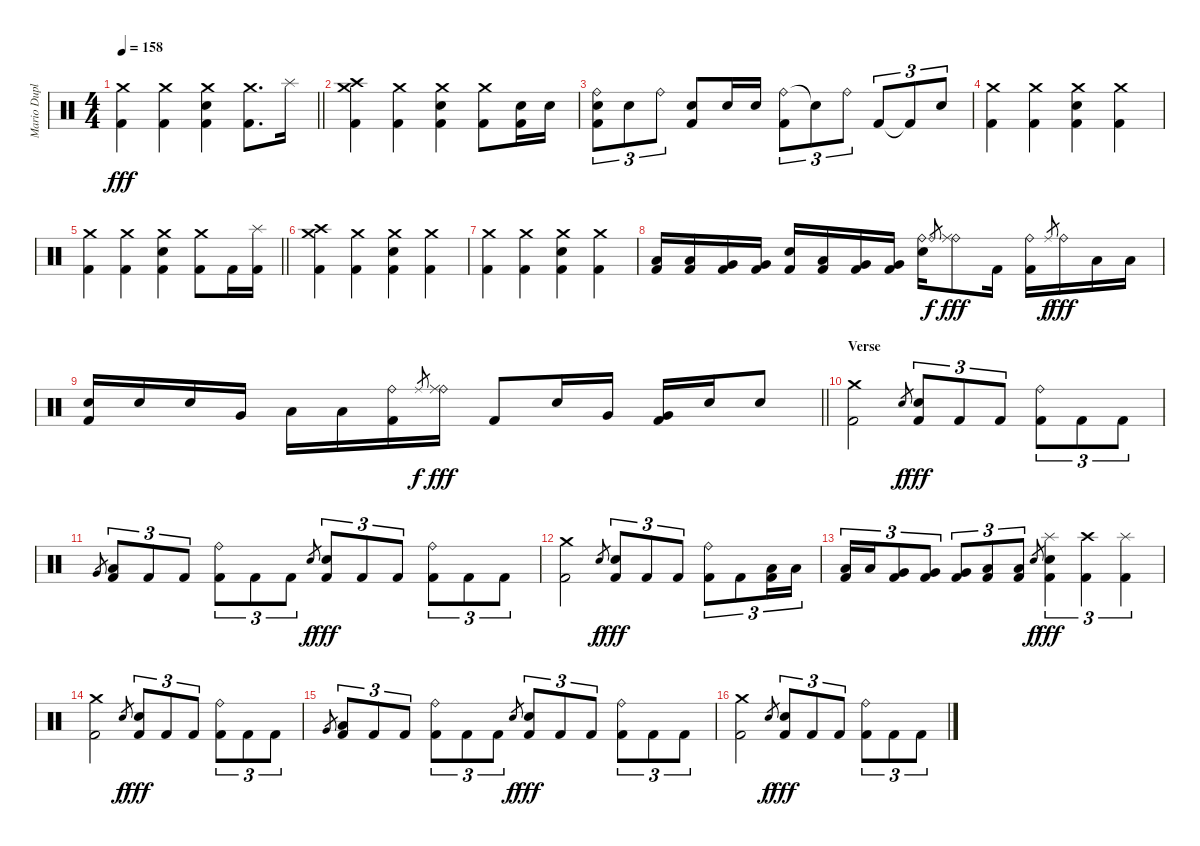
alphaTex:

\track ("Mario Duplantier" "Mario Dupl") {instrument percussion}
\staff {score}
\articulation defaults
\ts (4 4)
\tempo 158
\clef neutral
\barLineRight lightlight
\ks c
("Crash medium (hit)" "Kick (hit) 2").4{dy fff} ("Crash medium (hit)" "Kick (hit) 2").4 ("Crash medium (hit)" "Electric Snare (hit)" "Kick (hit) 2").4 ("Crash medium (hit)" "Kick (hit) 2").8{d} "Splash (hit)".16 |
("Crash medium (hit)" "Crash high (hit)" "Kick (hit) 2").4 ("Crash medium (hit)" "Kick (hit) 2").4 ("Crash medium (hit)" "Electric Snare (hit)" "Kick (hit) 2").4 ("Crash medium (hit)" "Kick (hit) 2").8 ("Electric Snare (hit)" "Kick (hit) 2").16 "Electric Snare (hit)".16 |
("Ride (bell)" "Electric Snare (hit)" "Kick (hit) 2").8{tu (3 2)} "Electric Snare (hit)".8{tu (3 2)} "Ride (bell)".8{tu (3 2)} ("Electric Snare (hit)" "Kick (hit) 2").8 "Electric Snare (hit)".16 "Electric Snare (hit)".16 ("Ride (bell)" "Kick (hit) 2").8{tu (3 2)} "Snare (hit)"{t}.8{tu (3 2)} "Ride (bell)".8{tu (3 2)} "Kick (hit) 2".8{tu (3 2)} "Kick (hit) 2"{t}.8{tu (3 2)} "Electric Snare (hit)".8{tu (3 2)} |
("Crash medium (hit)" "Kick (hit) 2").4 ("Crash medium (hit)" "Kick (hit) 2").4 ("Crash medium (hit)" "Electric Snare (hit)" "Kick (hit) 2").4 ("Crash medium (hit)" "Kick (hit) 2").4 |
\barLineRight lightlight
("Crash medium (hit)" "Kick (hit) 2").4 ("Crash medium (hit)" "Kick (hit) 2").4 ("Crash medium (hit)" "Electric Snare (hit)" "Kick (hit) 2").4 ("Crash medium (hit)" "Kick (hit) 2").8 "Kick (hit) 2".16 ("Splash (hit)" "Kick (hit) 2").16 |
("Crash medium (hit)" "Crash high (hit)" "Kick (hit) 2").4 ("Crash medium (hit)" "Kick (hit) 2").4 ("Crash medium (hit)" "Electric Snare (hit)" "Kick (hit) 2").4 ("Crash medium (hit)" "Kick (hit) 2").4 |
("Crash medium (hit)" "Kick (hit) 2").4 ("Crash medium (hit)" "Kick (hit) 2").4 ("Crash medium (hit)" "Electric Snare (hit)" "Kick (hit) 2").4 ("Crash medium (hit)" "Kick (hit) 2").4 |
("Low Tom (hit)" "Kick (hit) 2").16 ("Low Tom (hit)" "Kick (hit) 2").16 ("Very Low Tom (hit)" "Kick (hit) 2").16 ("Very Low Tom (hit)" "Kick (hit) 2").16 ("Electric Snare (hit)" "Kick (hit) 2").16 ("Low Tom (hit)" "Kick (hit) 2").16 ("Very Low Tom (hit)" "Kick (hit) 2").16 ("Very Low Tom (hit)" "Kick (hit) 2").16 ("Ride (bell)" "Electric Snare (hit)").16 "Ride (bell)".8{gr dy f} ("Ride (bell)" "Ride (middle)").8{dy fff} "Kick (hit) 2".16 ("Ride (bell)" "Kick (hit) 2").16 "Ride (middle)".8{gr dy f} "Ride (bell)".16{dy fff} "Low Tom (hit)".16 "Low Tom (hit)".16 |
\barLineRight lightlight
("Electric Snare (hit)" "Kick (hit) 2").16 "Electric Snare (hit)".16 "Electric Snare (hit)".16 "Very Low Tom (hit)".16 "Low Floor Tom (hit)".16 "Low Floor Tom (hit)".16 ("Ride (bell)" "Kick (hit) 2").16 "Ride (middle)".8{gr dy f} ("Ride (bell)" "Ride (middle)").16{dy fff} "Kick (hit) 2".8 "Electric Snare (hit)".16 "Very Low Tom (hit)".16 ("Very Low Tom (hit)" "Kick (hit) 2").16 "Electric Snare (hit)".16 "Electric Snare (hit)".8 |
\section ("" "Verse")
("Crash medium (hit)" "Kick (hit) 2").2 "Electric Snare (hit)".8{gr dy f} ("Electric Snare (hit)" "Kick (hit) 2").8{tu (3 2) dy fff} "Kick (hit) 2".8{tu (3 2)} "Kick (hit) 2".8{tu (3 2)} ("Ride (bell)" "Kick (hit) 2").8{tu (3 2)} "Kick (hit) 2".8{tu (3 2)} "Kick (hit) 2".8{tu (3 2)} |
"Very Low Tom (hit)".8{gr} ("Low Tom (hit)" "Kick (hit) 2").8{tu (3 2)} "Kick (hit) 2".8{tu (3 2)} "Kick (hit) 2".8{tu (3 2)} ("Ride (bell)" "Kick (hit) 2").8{tu (3 2)} "Kick (hit) 2".8{tu (3 2)} "Kick (hit) 2".8{tu (3 2)} "Electric Snare (hit)".8{gr dy f} ("Electric Snare (hit)" "Kick (hit) 2").8{tu (3 2) dy fff} "Kick (hit) 2".8{tu (3 2)} "Kick (hit) 2".8{tu (3 2)} ("Ride (bell)" "Kick (hit) 2").8{tu (3 2)} "Kick (hit) 2".8{tu (3 2)} "Kick (hit) 2".8{tu (3 2)} |
("Crash medium (hit)" "Kick (hit) 2").2 "Electric Snare (hit)".8{gr dy f} ("Electric Snare (hit)" "Kick (hit) 2").8{tu (3 2) dy fff} "Kick (hit) 2".8{tu (3 2)} "Kick (hit) 2".8{tu (3 2)} ("Ride (bell)" "Kick (hit) 2").8{tu (3 2)} "Kick (hit) 2".8{tu (3 2)} ("Low Tom (hit)" "Kick (hit) 2").16{tu (3 2)} "Low Tom (hit)".16{tu (3 2)} |
("Low Tom (hit)" "Kick (hit) 2").16{tu (3 2)} "Low Tom (hit)".16{tu (3 2)} ("Very Low Tom (hit)" "Kick (hit) 2").8{tu (3 2)} ("Very Low Tom (hit)" "Kick (hit) 2").8{tu (3 2)} ("Very Low Tom (hit)" "Kick (hit) 2").8{tu (3 2)} ("Low Floor Tom (hit)" "Kick (hit) 2").8{tu (3 2)} ("Low Floor Tom (hit)" "Kick (hit) 2").8{tu (3 2)} "Electric Snare (hit)".8{gr dy f} ("Splash (hit)" "Electric Snare (hit)" "Kick (hit) 2").4{tu (3 2) dy fff} ("Crash high (hit)" "Kick (hit) 2").4{tu (3 2)} ("Splash (hit)" "Kick (hit) 2").4{tu (3 2)} |
("Crash medium (hit)" "Kick (hit) 2").2 "Electric Snare (hit)".8{gr dy f} ("Electric Snare (hit)" "Kick (hit) 2").8{tu (3 2) dy fff} "Kick (hit) 2".8{tu (3 2)} "Kick (hit) 2".8{tu (3 2)} ("Ride (bell)" "Kick (hit) 2").8{tu (3 2)} "Kick (hit) 2".8{tu (3 2)} "Kick (hit) 2".8{tu (3 2)} |
"Very Low Tom (hit)".8{gr} ("Low Tom (hit)" "Kick (hit) 2").8{tu (3 2)} "Kick (hit) 2".8{tu (3 2)} "Kick (hit) 2".8{tu (3 2)} ("Ride (bell)" "Kick (hit) 2").8{tu (3 2)} "Kick (hit) 2".8{tu (3 2)} "Kick (hit) 2".8{tu (3 2)} "Electric Snare (hit)".8{gr dy f} ("Electric Snare (hit)" "Kick (hit) 2").8{tu (3 2) dy fff} "Kick (hit) 2".8{tu (3 2)} "Kick (hit) 2".8{tu (3 2)} ("Ride (bell)" "Kick (hit) 2").8{tu (3 2)} "Kick (hit) 2".8{tu (3 2)} "Kick (hit) 2".8{tu (3 2)} |
("Crash medium (hit)" "Kick (hit) 2").2 "Electric Snare (hit)".8{gr dy f} ("Electric Snare (hit)" "Kick (hit) 2").8{tu (3 2) dy fff} "Kick (hit) 2".8{tu (3 2)} "Kick (hit) 2".8{tu (3 2)} ("Ride (bell)" "Kick (hit) 2").8{tu (3 2)} "Kick (hit) 2".8{tu (3 2)} "Kick (hit) 2".8{tu (3 2)}
